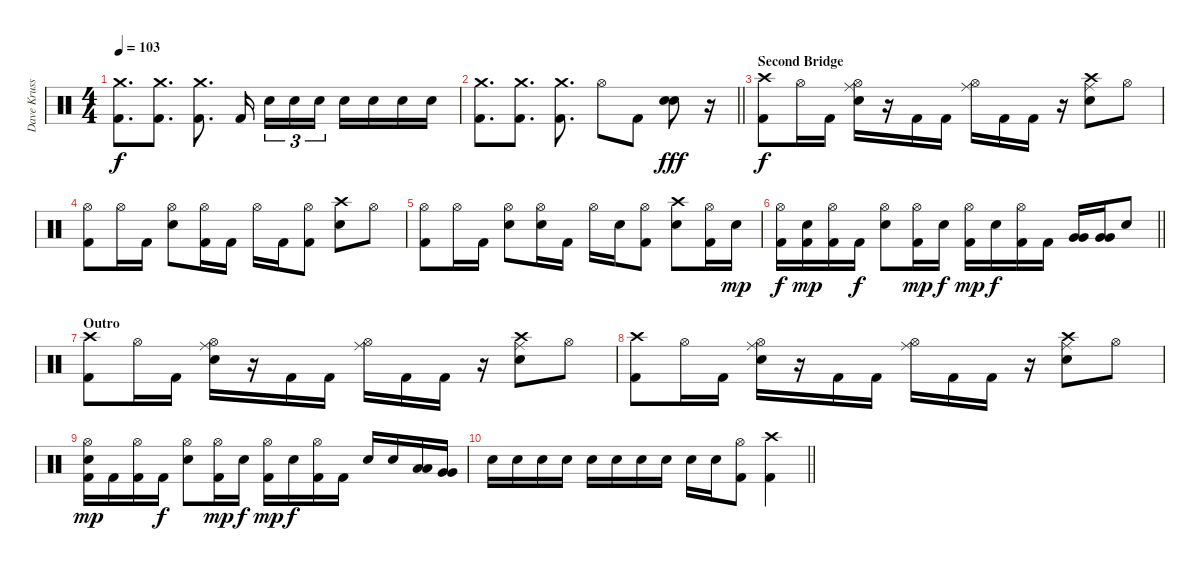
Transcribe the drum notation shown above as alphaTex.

\track ("Dave Krussen" "Dave Kruss") {instrument percussion}
\staff {score}
\articulation defaults
\ts (4 4)
\tempo 103
\clef neutral
\ks c
("Crash medium (hit)" "Kick (hit) 2").8{d dy f} ("Crash medium (hit)" "Kick (hit) 2").8{d} ("Crash medium (hit)" "Kick (hit) 2").8{d} "Kick (hit) 2".16{beam splitsecondary} "Electric Snare (hit)".16{tu (3 2)} "Electric Snare (hit)".16{tu (3 2)} "Electric Snare (hit)".16{tu (3 2)} "Electric Snare (hit)".16 "Electric Snare (hit)".16 "Electric Snare (hit)".16 "Electric Snare (hit)".16 |
\barLineRight lightlight
("Crash medium (hit)" "Kick (hit) 2").8{d} ("Crash medium (hit)" "Kick (hit) 2").8{d} ("Crash medium (hit)" "Kick (hit) 2").8{d} "Hi-Hat (open)".8 "Kick (hit) 2".8 ("Electric Snare (hit)" "Snare (hit) 2").8{bd 60 dy fff} r.16 |
\section ("" "Second Bridge")
("Crash high (hit)" "Kick (hit) 2").8{dy f} "Hi-Hat (open)".16 "Kick (hit) 2".16 ("Ride (middle)" "Hi-Hat (open)" "Electric Snare (hit)").16 r.16 "Kick (hit) 2".16 "Kick (hit) 2".16 ("Ride (middle)" "Hi-Hat (open)").16 "Kick (hit) 2".16 "Kick (hit) 2".16 r.16 ("Ride (middle)" "Crash high (hit)" "Electric Snare (hit)").8 "Hi-Hat (open)".8 |
("Hi-Hat (open)" "Kick (hit) 2").8 "Hi-Hat (open)".16 "Kick (hit) 2".16 ("Hi-Hat (open)" "Electric Snare (hit)").8 ("Hi-Hat (open)" "Kick (hit) 2").16 "Kick (hit) 2".16 "Hi-Hat (open)".16 "Kick (hit) 2".16 ("Hi-Hat (open)" "Kick (hit) 2").8 ("Crash high (hit)" "Electric Snare (hit)").8 "Hi-Hat (open)".8 |
("Hi-Hat (open)" "Kick (hit) 2").8 "Hi-Hat (open)".16 "Kick (hit) 2".16 ("Hi-Hat (open)" "Electric Snare (hit)").8 ("Hi-Hat (open)" "Electric Snare (hit)").16 "Kick (hit) 2".16 "Hi-Hat (open)".16 "Electric Snare (hit)".16 ("Hi-Hat (open)" "Kick (hit) 2").8 ("Crash high (hit)" "Electric Snare (hit)").8 ("Hi-Hat (open)" "Kick (hit) 2").16 "Electric Snare (hit)".16{dy mp} |
\barLineRight lightlight
("Hi-Hat (open)" "Kick (hit) 2").16{dy f} ("Electric Snare (hit)" "Kick (hit) 2").16{dy mp} ("Hi-Hat (open)" "Kick (hit) 2").16 "Kick (hit) 2".16{dy f} ("Hi-Hat (open)" "Electric Snare (hit)").8 ("Hi-Hat (open)" "Kick (hit) 2").16{dy mp} "Electric Snare (hit)".16{dy f} ("Hi-Hat (open)" "Kick (hit) 2").16{dy mp} "Electric Snare (hit)".16{dy f} ("Hi-Hat (open)" "Kick (hit) 2").16 "Kick (hit) 2".16 ("Very Low Tom (hit)" "Very Low Tom (hit)").16 ("Very Low Tom (hit)" "Very Low Tom (hit)").16 "Electric Snare (hit)".8 |
\section ("" "Outro")
("Crash high (hit)" "Kick (hit) 2").8 "Hi-Hat (open)".16 "Kick (hit) 2".16 ("Ride (middle)" "Hi-Hat (open)" "Electric Snare (hit)").16 r.16 "Kick (hit) 2".16 "Kick (hit) 2".16 ("Ride (middle)" "Hi-Hat (open)").16 "Kick (hit) 2".16 "Kick (hit) 2".16 r.16 ("Ride (middle)" "Crash high (hit)" "Electric Snare (hit)").8 "Hi-Hat (open)".8 |
("Crash high (hit)" "Kick (hit) 2").8 "Hi-Hat (open)".16 "Kick (hit) 2".16 ("Ride (middle)" "Hi-Hat (open)" "Electric Snare (hit)").16 r.16 "Kick (hit) 2".16 "Kick (hit) 2".16 ("Ride (middle)" "Hi-Hat (open)").16 "Kick (hit) 2".16 "Kick (hit) 2".16 r.16 ("Ride (middle)" "Crash high (hit)" "Electric Snare (hit)").8 "Hi-Hat (open)".8 |
("Hi-Hat (open)" "Electric Snare (hit)" "Kick (hit) 2").16{dy mp} "Kick (hit) 2".16 ("Hi-Hat (open)" "Kick (hit) 2").16 "Kick (hit) 2".16{dy f} ("Hi-Hat (open)" "Electric Snare (hit)").8 ("Hi-Hat (open)" "Kick (hit) 2").16{dy mp} "Electric Snare (hit)".16{dy f} ("Hi-Hat (open)" "Kick (hit) 2").16{dy mp} "Electric Snare (hit)".16{dy f} ("Hi-Hat (open)" "Kick (hit) 2").16 "Kick (hit) 2".16 "Electric Snare (hit)".16 "Electric Snare (hit)".16 ("Low Tom (hit)" "Low Tom (hit)").16 ("Very Low Tom (hit)" "Very Low Tom (hit)").16 |
\barLineRight lightlight "Electric Snare (hit)".16 "Electric Snare (hit)".16 "Electric Snare (hit)".16 "Electric Snare (hit)".16 "Electric Snare (hit)".16 "Electric Snare (hit)".16 "Electric Snare (hit)".16 "Electric Snare (hit)".16 "Electric Snare (hit)".16 "Electric Snare (hit)".16
("Hi-Hat (open)" "Kick (hit) 2").8 ("Crash high (hit)" "Kick (hit) 2").4
